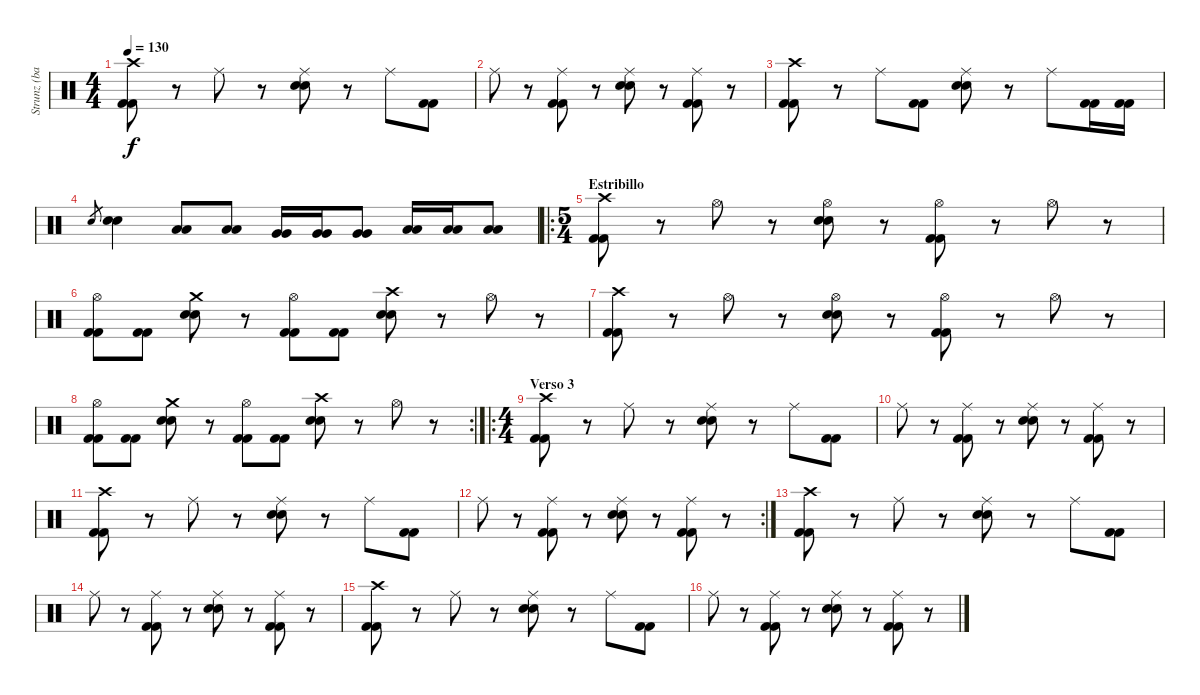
\track ("Strunz (bateria)" "Strunz (ba") {instrument percussion}
\staff {score}
\articulation defaults
\ts (4 4)
\tempo 130
\clef neutral
\ks c
("Crash high (hit)" "Kick (hit) 2" "Kick (hit) 2").8{dy f} r.8 "Ride (middle)".8 r.8 ("Ride (middle)" "Snare (hit) 2" "Snare (hit) 2").8 r.8 "Ride (middle)".8 ("Kick (hit) 2" "Kick (hit) 2").8 |
"Ride (middle)".8 r.8 ("Ride (middle)" "Kick (hit) 2" "Kick (hit) 2").8 r.8 ("Ride (middle)" "Snare (hit) 2" "Snare (hit) 2").8 r.8 ("Ride (middle)" "Kick (hit) 2" "Kick (hit) 2").8 r.8 |
("Crash high (hit)" "Kick (hit) 2" "Kick (hit) 2").8 r.8 "Ride (middle)".8 ("Kick (hit) 2" "Kick (hit) 2").8 ("Ride (middle)" "Snare (hit) 2" "Snare (hit) 2").8 r.8 "Ride (middle)".8 ("Kick (hit) 2" "Kick (hit) 2").16 ("Kick (hit) 2" "Kick (hit) 2").16 |
"Snare (hit) 2".8{gr} ("Snare (hit) 2" "Snare (hit) 2").4 ("Low Tom (hit)" "Low Tom (hit)").8 ("Low Tom (hit)" "Low Tom (hit)").8 ("Very Low Tom (hit)" "Very Low Tom (hit)").16 ("Very Low Tom (hit)" "Very Low Tom (hit)").16 ("Very Low Tom (hit)" "Very Low Tom (hit)").8 ("Low Floor Tom (hit)" "Low Floor Tom (hit)").16 ("Low Floor Tom (hit)" "Low Floor Tom (hit)").16 ("Low Floor Tom (hit)" "Low Floor Tom (hit)").8 |
\ro
\ts (5 4)
\section ("" "Estribillo")
("Crash high (hit)" "Kick (hit) 2" "Kick (hit) 2").8 r.8 "Hi-Hat (open)".8 r.8 ("Hi-Hat (open)" "Snare (hit) 2" "Snare (hit) 2").8 r.8 ("Hi-Hat (open)" "Kick (hit) 2" "Kick (hit) 2").8 r.8 "Hi-Hat (open)".8 r.8 |
("Hi-Hat (open)" "Kick (hit) 2" "Kick (hit) 2").8 ("Kick (hit) 2" "Kick (hit) 2").8 ("Crash medium (hit)" "Snare (hit) 2" "Snare (hit) 2").8 r.8 ("Hi-Hat (open)" "Kick (hit) 2" "Kick (hit) 2").8 ("Kick (hit) 2" "Kick (hit) 2").8 ("Crash high (hit)" "Snare (hit) 2" "Snare (hit) 2").8 r.8 "Hi-Hat (open)".8 r.8 |
("Crash high (hit)" "Kick (hit) 2" "Kick (hit) 2").8 r.8 "Hi-Hat (open)".8 r.8 ("Hi-Hat (open)" "Snare (hit) 2" "Snare (hit) 2").8 r.8 ("Hi-Hat (open)" "Kick (hit) 2" "Kick (hit) 2").8 r.8 "Hi-Hat (open)".8 r.8 |
\rc 2
("Hi-Hat (open)" "Kick (hit) 2" "Kick (hit) 2").8 ("Kick (hit) 2" "Kick (hit) 2").8 ("Crash medium (hit)" "Snare (hit) 2" "Snare (hit) 2").8 r.8 ("Hi-Hat (open)" "Kick (hit) 2" "Kick (hit) 2").8 ("Kick (hit) 2" "Kick (hit) 2").8 ("Crash high (hit)" "Snare (hit) 2" "Snare (hit) 2").8 r.8 "Hi-Hat (open)".8 r.8 |
\ro
\ts (4 4)
\section ("" "Verso 3")
("Crash high (hit)" "Kick (hit) 2" "Kick (hit) 2").8 r.8 "Ride (middle)".8 r.8 ("Ride (middle)" "Snare (hit) 2" "Snare (hit) 2").8 r.8 "Ride (middle)".8 ("Kick (hit) 2" "Kick (hit) 2").8 |
"Ride (middle)".8 r.8 ("Ride (middle)" "Kick (hit) 2" "Kick (hit) 2").8 r.8 ("Ride (middle)" "Snare (hit) 2" "Snare (hit) 2").8 r.8 ("Ride (middle)" "Kick (hit) 2" "Kick (hit) 2").8 r.8 |
("Crash high (hit)" "Kick (hit) 2" "Kick (hit) 2").8 r.8 "Ride (middle)".8 r.8 ("Ride (middle)" "Snare (hit) 2" "Snare (hit) 2").8 r.8 "Ride (middle)".8 ("Kick (hit) 2" "Kick (hit) 2").8 |
\rc 2 "Ride (middle)".8
r.8 ("Ride (middle)" "Kick (hit) 2" "Kick (hit) 2").8 r.8 ("Ride (middle)" "Snare (hit) 2" "Snare (hit) 2").8 r.8 ("Ride (middle)" "Kick (hit) 2" "Kick (hit) 2").8 r.8 |
("Crash high (hit)" "Kick (hit) 2" "Kick (hit) 2").8 r.8 "Ride (middle)".8 r.8 ("Ride (middle)" "Snare (hit) 2" "Snare (hit) 2").8 r.8 "Ride (middle)".8 ("Kick (hit) 2" "Kick (hit) 2").8 |
"Ride (middle)".8 r.8 ("Ride (middle)" "Kick (hit) 2" "Kick (hit) 2").8 r.8 ("Ride (middle)" "Snare (hit) 2" "Snare (hit) 2").8 r.8 ("Ride (middle)" "Kick (hit) 2" "Kick (hit) 2").8 r.8 |
("Crash high (hit)" "Kick (hit) 2" "Kick (hit) 2").8 r.8 "Ride (middle)".8 r.8 ("Ride (middle)" "Snare (hit) 2" "Snare (hit) 2").8 r.8 "Ride (middle)".8 ("Kick (hit) 2" "Kick (hit) 2").8 |
"Ride (middle)".8 r.8 ("Ride (middle)" "Kick (hit) 2" "Kick (hit) 2").8 r.8 ("Ride (middle)" "Snare (hit) 2" "Snare (hit) 2").8 r.8 ("Ride (middle)" "Kick (hit) 2" "Kick (hit) 2").8 r.8
